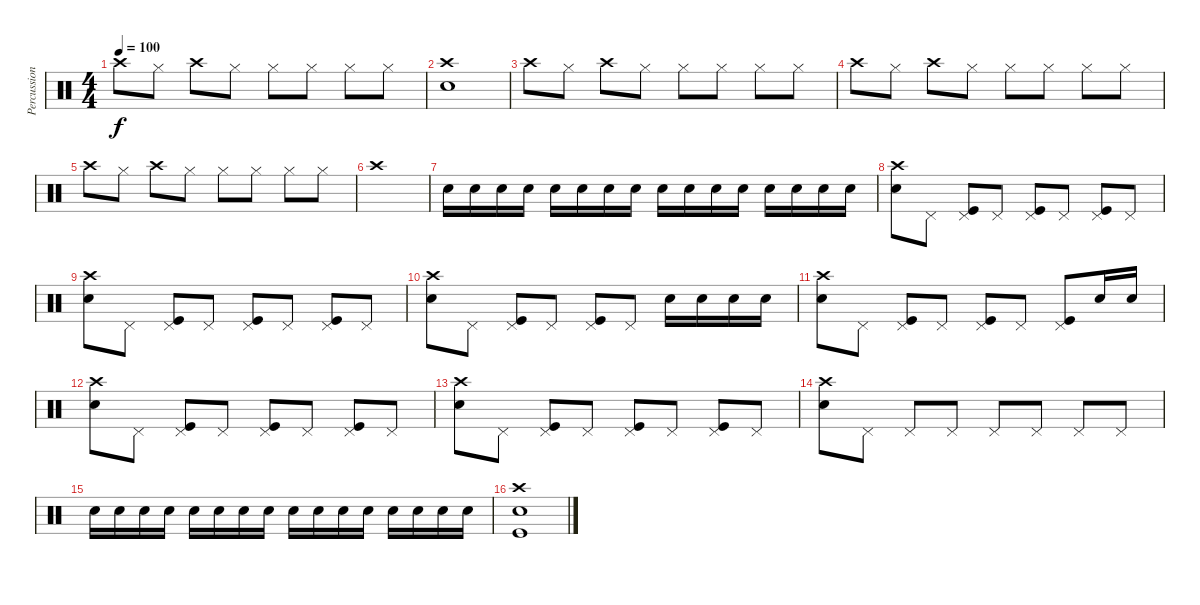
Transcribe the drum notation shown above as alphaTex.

\track ("Percussion" "Percussion") {instrument percussion}
\staff {score}
\articulation defaults
\ts (4 4)
\tempo 100
\clef neutral
\ks c "Crash high (hit)".8{dy f} "Hi-Hat (closed)".8 "Crash high (hit)".8 "Hi-Hat (closed)".8 "Hi-Hat (closed)".8 "Hi-Hat (closed)".8 "Hi-Hat (closed)".8 "Hi-Hat (closed)".8
|
("Snare (hit) 2" "Crash high (hit)").1 |
"Crash high (hit)".8 "Hi-Hat (closed)".8 "Crash high (hit)".8 "Hi-Hat (closed)".8 "Hi-Hat (closed)".8 "Hi-Hat (closed)".8 "Hi-Hat (closed)".8 "Hi-Hat (closed)".8 |
"Crash high (hit)".8 "Hi-Hat (closed)".8 "Crash high (hit)".8 "Hi-Hat (closed)".8 "Hi-Hat (closed)".8 "Hi-Hat (closed)".8 "Hi-Hat (closed)".8 "Hi-Hat (closed)".8 |
"Crash high (hit)".8 "Hi-Hat (closed)".8 "Crash high (hit)".8 "Hi-Hat (closed)".8 "Hi-Hat (closed)".8 "Hi-Hat (closed)".8 "Hi-Hat (closed)".8 "Hi-Hat (closed)".8 |
"Crash high (hit)".1 |
"Snare (hit) 2".16 "Snare (hit) 2".16 "Snare (hit) 2".16 "Snare (hit) 2".16 "Snare (hit) 2".16 "Snare (hit) 2".16 "Snare (hit) 2".16 "Snare (hit) 2".16 "Snare (hit) 2".16 "Snare (hit) 2".16 "Snare (hit) 2".16 "Snare (hit) 2".16 "Snare (hit) 2".16 "Snare (hit) 2".16 "Snare (hit) 2".16 "Snare (hit) 2".16 |
("Crash high (hit)" "Snare (hit) 2").8 "Pedal Hi-Hat (hit)".8 ("Pedal Hi-Hat (hit)" "Kick (hit)").8 "Pedal Hi-Hat (hit)".8 ("Pedal Hi-Hat (hit)" "Kick (hit)").8 "Pedal Hi-Hat (hit)".8 ("Pedal Hi-Hat (hit)" "Kick (hit)").8 "Pedal Hi-Hat (hit)".8 |
("Crash high (hit)" "Snare (hit) 2").8 "Pedal Hi-Hat (hit)".8 ("Kick (hit)" "Pedal Hi-Hat (hit)").8 "Pedal Hi-Hat (hit)".8 ("Kick (hit)" "Pedal Hi-Hat (hit)").8 "Pedal Hi-Hat (hit)".8 ("Kick (hit)" "Pedal Hi-Hat (hit)").8 "Pedal Hi-Hat (hit)".8 |
("Snare (hit) 2" "Crash high (hit)").8 "Pedal Hi-Hat (hit)".8 ("Pedal Hi-Hat (hit)" "Kick (hit)").8 "Pedal Hi-Hat (hit)".8 ("Pedal Hi-Hat (hit)" "Kick (hit)").8 "Pedal Hi-Hat (hit)".8 "Snare (hit) 2".16 "Snare (hit) 2".16 "Snare (hit) 2".16 "Snare (hit) 2".16 |
("Snare (hit) 2" "Crash high (hit)").8 "Pedal Hi-Hat (hit)".8 ("Kick (hit)" "Pedal Hi-Hat (hit)").8 "Pedal Hi-Hat (hit)".8 ("Kick (hit)" "Pedal Hi-Hat (hit)").8 "Pedal Hi-Hat (hit)".8 ("Kick (hit)" "Pedal Hi-Hat (hit)").8 "Snare (hit) 2".16 "Snare (hit) 2".16 |
("Snare (hit) 2" "Crash high (hit)").8 "Pedal Hi-Hat (hit)".8 ("Kick (hit)" "Pedal Hi-Hat (hit)").8 "Pedal Hi-Hat (hit)".8 ("Kick (hit)" "Pedal Hi-Hat (hit)").8 "Pedal Hi-Hat (hit)".8 ("Kick (hit)" "Pedal Hi-Hat (hit)").8 "Pedal Hi-Hat (hit)".8 |
("Snare (hit) 2" "Crash high (hit)").8 "Pedal Hi-Hat (hit)".8 ("Kick (hit)" "Pedal Hi-Hat (hit)").8 "Pedal Hi-Hat (hit)".8 ("Kick (hit)" "Pedal Hi-Hat (hit)").8 "Pedal Hi-Hat (hit)".8 ("Kick (hit)" "Pedal Hi-Hat (hit)").8 "Pedal Hi-Hat (hit)".8 |
("Snare (hit) 2" "Crash high (hit)").8 "Pedal Hi-Hat (hit)".8 "Pedal Hi-Hat (hit)".8 "Pedal Hi-Hat (hit)".8 "Pedal Hi-Hat (hit)".8 "Pedal Hi-Hat (hit)".8 "Pedal Hi-Hat (hit)".8 "Pedal Hi-Hat (hit)".8 |
"Snare (hit) 2".16 "Snare (hit) 2".16 "Snare (hit) 2".16 "Snare (hit) 2".16 "Snare (hit) 2".16 "Snare (hit) 2".16 "Snare (hit) 2".16 "Snare (hit) 2".16 "Snare (hit) 2".16 "Snare (hit) 2".16 "Snare (hit) 2".16 "Snare (hit) 2".16 "Snare (hit) 2".16 "Snare (hit) 2".16 "Snare (hit) 2".16 "Snare (hit) 2".16 |
("Snare (hit) 2" "Kick (hit)" "Crash high (hit)").1
